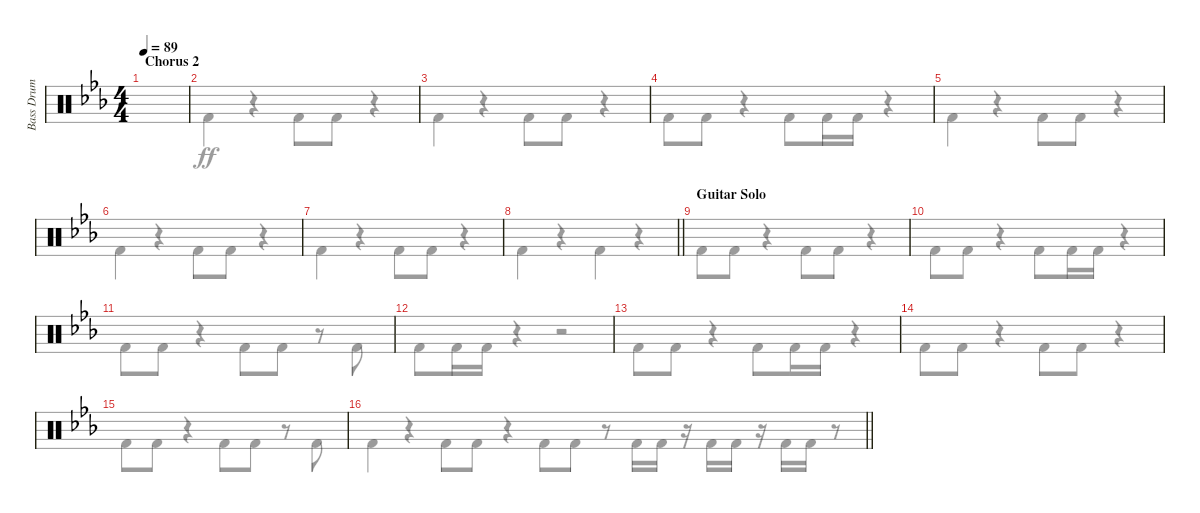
\track ("Bass Drum" "Bass Drum") {instrument percussion}
\staff {score}
\articulation defaults
\voice
\ts (4 4)
\section ("" "Chorus 2")
\tempo 89
\clef neutral
\ks eb
|
|
|
|
|
|
|
\barLineRight lightlight
|
\section ("" "Guitar Solo")
|
|
|
|
|
|
|
\barLineRight lightlight
\voice
\clef neutral
\ks eb "Kick (hit) 2".4{dy ff}
r.4 "Kick (hit) 2".8 "Kick (hit) 2".8 r.4 |
"Kick (hit) 2".4 r.4 "Kick (hit) 2".8 "Kick (hit) 2".8 r.4 |
"Kick (hit) 2".4 r.4 "Kick (hit) 2".8 "Kick (hit) 2".8 r.4 |
"Kick (hit) 2".8 "Kick (hit) 2".8 r.4 "Kick (hit) 2".8 "Kick (hit) 2".16 "Kick (hit) 2".16 r.4 |
"Kick (hit) 2".4 r.4 "Kick (hit) 2".8 "Kick (hit) 2".8 r.4 |
"Kick (hit) 2".4 r.4 "Kick (hit) 2".8 "Kick (hit) 2".8 r.4 |
"Kick (hit) 2".4 r.4 "Kick (hit) 2".8 "Kick (hit) 2".8 r.4 |
\barLineRight lightlight "Kick (hit) 2".4
r.4 "Kick (hit) 2".4 r.4 |
"Kick (hit) 2".8 "Kick (hit) 2".8 r.4 "Kick (hit) 2".8 "Kick (hit) 2".8 r.4 |
"Kick (hit) 2".8 "Kick (hit) 2".8 r.4 "Kick (hit) 2".8 "Kick (hit) 2".16 "Kick (hit) 2".16 r.4 |
"Kick (hit) 2".8 "Kick (hit) 2".8 r.4 "Kick (hit) 2".8 "Kick (hit) 2".8 r.8 "Kick (hit) 2".8 |
"Kick (hit) 2".8 "Kick (hit) 2".16 "Kick (hit) 2".16 r.4 r.2 |
"Kick (hit) 2".8 "Kick (hit) 2".8 r.4 "Kick (hit) 2".8 "Kick (hit) 2".16 "Kick (hit) 2".16 r.4 |
"Kick (hit) 2".8 "Kick (hit) 2".8 r.4 "Kick (hit) 2".8 "Kick (hit) 2".8 r.4 |
"Kick (hit) 2".8 "Kick (hit) 2".8 r.4 "Kick (hit) 2".8 "Kick (hit) 2".8 r.8 "Kick (hit) 2".8 |
\barLineRight lightlight "Kick (hit) 2".8 "Kick (hit) 2".8
r.8 "Kick (hit) 2".16 "Kick (hit) 2".16 r.16 "Kick (hit) 2".16 "Kick (hit) 2".16 r.16 "Kick (hit) 2".16 "Kick (hit) 2".16 r.8
